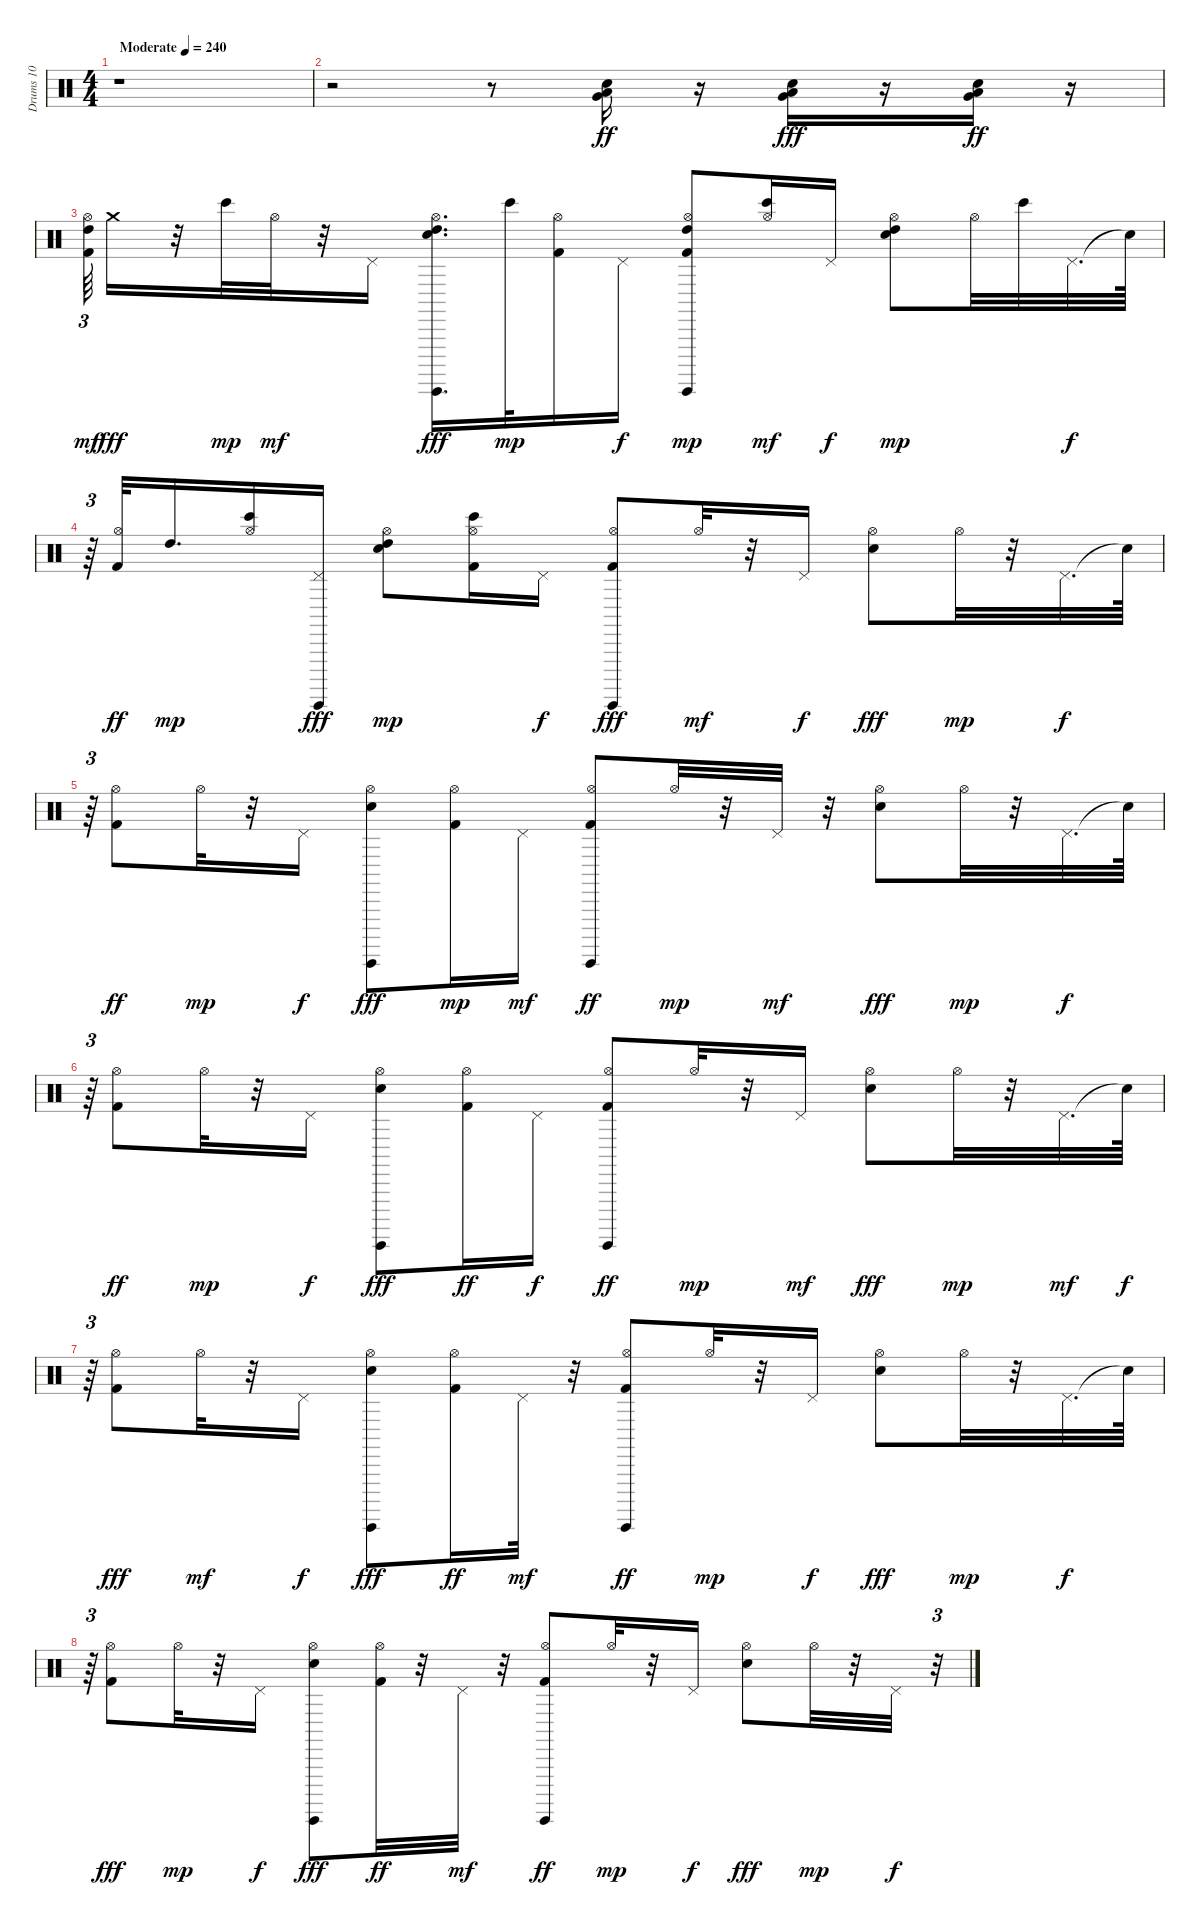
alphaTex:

\track ("Drums 10" "Drums 10") {instrument percussion}
\staff {score}
\articulation defaults
\ts (4 4)
\tempo (240 "Moderate")
\clef neutral
\ks c
r.1{dy ff} |
r.2 r.8 ("Electric Snare (hit)" "Very Low Tom (hit)" "Low Tom (hit)").16 r.16 ("Electric Snare (hit)" "Low Tom (hit)" "Very Low Tom (hit)").16{dy fff} r.16 ("Electric Snare (hit)" "Low Tom (hit)" "Very Low Tom (hit)").16{dy ff} r.16 |
("Hi-Hat (open)" "Kick (hit) 2" "High Tom (hit)").64{tu (3 2) dy mf} "Crash medium (hit)".16{dy fff} r.32 "Bongo High (hit)".32{dy mp} "Hi-Hat (open)".32{dy mf} r.32 "Pedal Hi-Hat (hit)".16 ("High Tom (hit)" "Hi-Hat (open)" "Guiro (hit)" "Snare (hit) 2").16{d dy fff} "Bongo High (hit)".32{dy mp} ("Hi-Hat (open)" "Kick (hit) 2").16 "Pedal Hi-Hat (hit)".16{dy f} ("Hi-Hat (open)" "Guiro (hit)" "Kick (hit) 2" "High Tom (hit)").8{dy mp} ("Hi-Hat (open)" "Bongo High (hit)").16{dy mf} "Pedal Hi-Hat (hit)".16{dy f} ("Hi-Hat (open)" "Snare (hit) 2" "High Tom (hit)").8{dy mp} "Hi-Hat (open)".32 "Bongo High (hit)".32 "Pedal Hi-Hat (hit)".32{d dy f} "Snare (hit)"{t}.64 |
r.64{tu (3 2)} ("Hi-Hat (open)" "Kick (hit) 2").32{dy ff} "High Tom (hit)".16{d dy mp} ("Hi-Hat (open)" "Bongo High (hit)").16 ("Pedal Hi-Hat (hit)" "Guiro (hit)").16{dy fff} ("Hi-Hat (open)" "Snare (hit) 2" "High Tom (hit)").8{dy mp} ("Hi-Hat (open)" "Kick (hit) 2" "Bongo High (hit)").16 "Pedal Hi-Hat (hit)".16{dy f} ("Hi-Hat (open)" "Guiro (hit)" "Kick (hit) 2").8{dy fff} "Hi-Hat (open)".32{dy mf} r.32 "Pedal Hi-Hat (hit)".16{dy f} ("Hi-Hat (open)" "Snare (hit) 2").8{dy fff} "Hi-Hat (open)".32{dy mp} r.32 "Pedal Hi-Hat (hit)".32{d dy f} "Snare (hit)"{t}.64 |
r.64{tu (3 2)} ("Hi-Hat (open)" "Kick (hit) 2").8{dy ff} "Hi-Hat (open)".32{dy mp} r.32 "Pedal Hi-Hat (hit)".16{dy f} ("Hi-Hat (open)" "Guiro (hit)" "Snare (hit) 2").8{dy fff} ("Hi-Hat (open)" "Kick (hit) 2").16{dy mp} "Pedal Hi-Hat (hit)".16{dy mf} ("Hi-Hat (open)" "Guiro (hit)" "Kick (hit) 2").8{dy ff} "Hi-Hat (open)".32{dy mp} r.32 "Pedal Hi-Hat (hit)".32{dy mf} r.32 ("Hi-Hat (open)" "Snare (hit) 2").8{dy fff} "Hi-Hat (open)".32{dy mp} r.32 "Pedal Hi-Hat (hit)".32{d dy f} "Snare (hit)"{t}.64 |
r.64{tu (3 2)} ("Hi-Hat (open)" "Kick (hit) 2").8{dy ff} "Hi-Hat (open)".32{dy mp} r.32 "Pedal Hi-Hat (hit)".16{dy f} ("Hi-Hat (open)" "Guiro (hit)" "Snare (hit) 2").8{dy fff} ("Hi-Hat (open)" "Kick (hit) 2").16{dy ff} "Pedal Hi-Hat (hit)".16{dy f} ("Hi-Hat (open)" "Guiro (hit)" "Kick (hit) 2").8{dy ff} "Hi-Hat (open)".32{dy mp} r.32 "Pedal Hi-Hat (hit)".16{dy mf} ("Hi-Hat (open)" "Snare (hit) 2").8{dy fff} "Hi-Hat (open)".32{dy mp} r.32 "Pedal Hi-Hat (hit)".32{d dy mf} "Snare (hit)"{t}.64{dy f} |
r.64{tu (3 2)} ("Hi-Hat (open)" "Kick (hit) 2").8{dy fff} "Hi-Hat (open)".32{dy mf} r.32 "Pedal Hi-Hat (hit)".16{dy f} ("Hi-Hat (open)" "Guiro (hit)" "Snare (hit) 2").8{dy fff} ("Hi-Hat (open)" "Kick (hit) 2").16{dy ff} "Pedal Hi-Hat (hit)".32{dy mf} r.32 ("Hi-Hat (open)" "Guiro (hit)" "Kick (hit) 2").8{dy ff} "Hi-Hat (open)".32{dy mp} r.32 "Pedal Hi-Hat (hit)".16{dy f} ("Hi-Hat (open)" "Snare (hit) 2").8{dy fff} "Hi-Hat (open)".32{dy mp} r.32 "Pedal Hi-Hat (hit)".32{d dy f} "Snare (hit)"{t}.64 |
r.64{tu (3 2)} ("Hi-Hat (open)" "Kick (hit) 2").8{dy fff} "Hi-Hat (open)".32{dy mp} r.32 "Pedal Hi-Hat (hit)".16{dy f} ("Hi-Hat (open)" "Guiro (hit)" "Snare (hit) 2").8{dy fff} ("Hi-Hat (open)" "Kick (hit) 2").32{dy ff} r.32 "Pedal Hi-Hat (hit)".32{dy mf} r.32 ("Hi-Hat (open)" "Guiro (hit)" "Kick (hit) 2").8{dy ff} "Hi-Hat (open)".32{dy mp} r.32 "Pedal Hi-Hat (hit)".16{dy f} ("Hi-Hat (open)" "Snare (hit) 2").8{dy fff} "Hi-Hat (open)".32{dy mp} r.32 "Pedal Hi-Hat (hit)".32{dy f} r.32{tu (3 2)}
